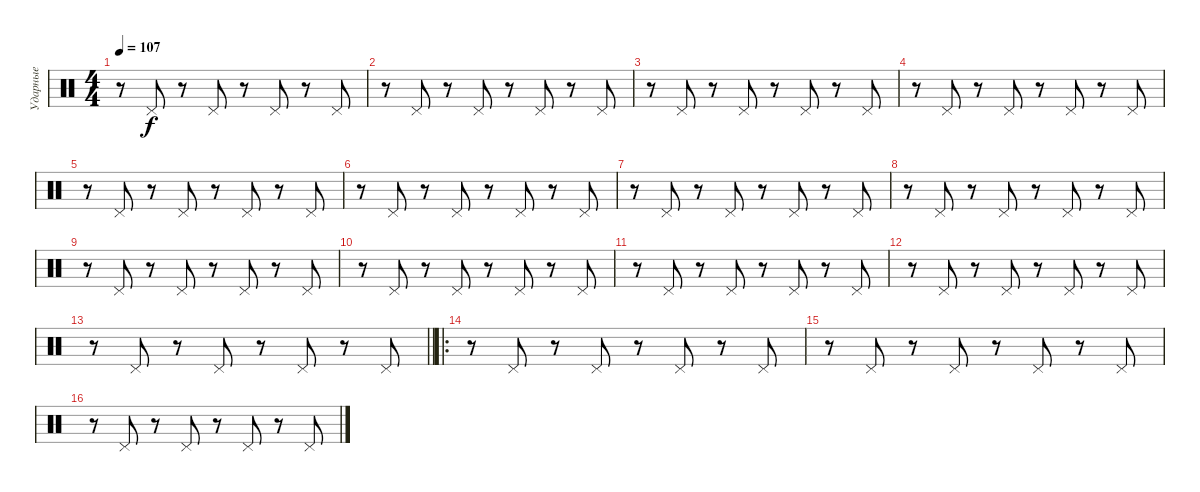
\track ("Ударные" "Ударные") {instrument percussion}
\staff {score}
\articulation defaults
\ts (4 4)
\tempo 107
\clef neutral
\ks c
r.8{dy f} "Pedal Hi-Hat (hit)".8 r.8 "Pedal Hi-Hat (hit)".8 r.8 "Pedal Hi-Hat (hit)".8 r.8 "Pedal Hi-Hat (hit)".8 |
r.8 "Pedal Hi-Hat (hit)".8 r.8 "Pedal Hi-Hat (hit)".8 r.8 "Pedal Hi-Hat (hit)".8 r.8 "Pedal Hi-Hat (hit)".8 |
r.8 "Pedal Hi-Hat (hit)".8 r.8 "Pedal Hi-Hat (hit)".8 r.8 "Pedal Hi-Hat (hit)".8 r.8 "Pedal Hi-Hat (hit)".8 |
r.8 "Pedal Hi-Hat (hit)".8 r.8 "Pedal Hi-Hat (hit)".8 r.8 "Pedal Hi-Hat (hit)".8 r.8 "Pedal Hi-Hat (hit)".8 |
r.8 "Pedal Hi-Hat (hit)".8 r.8 "Pedal Hi-Hat (hit)".8 r.8 "Pedal Hi-Hat (hit)".8 r.8 "Pedal Hi-Hat (hit)".8 |
r.8 "Pedal Hi-Hat (hit)".8 r.8 "Pedal Hi-Hat (hit)".8 r.8 "Pedal Hi-Hat (hit)".8 r.8 "Pedal Hi-Hat (hit)".8 |
r.8 "Pedal Hi-Hat (hit)".8 r.8 "Pedal Hi-Hat (hit)".8 r.8 "Pedal Hi-Hat (hit)".8 r.8 "Pedal Hi-Hat (hit)".8 |
r.8 "Pedal Hi-Hat (hit)".8 r.8 "Pedal Hi-Hat (hit)".8 r.8 "Pedal Hi-Hat (hit)".8 r.8 "Pedal Hi-Hat (hit)".8 |
r.8 "Pedal Hi-Hat (hit)".8 r.8 "Pedal Hi-Hat (hit)".8 r.8 "Pedal Hi-Hat (hit)".8 r.8 "Pedal Hi-Hat (hit)".8 |
r.8 "Pedal Hi-Hat (hit)".8 r.8 "Pedal Hi-Hat (hit)".8 r.8 "Pedal Hi-Hat (hit)".8 r.8 "Pedal Hi-Hat (hit)".8 |
r.8 "Pedal Hi-Hat (hit)".8 r.8 "Pedal Hi-Hat (hit)".8 r.8 "Pedal Hi-Hat (hit)".8 r.8 "Pedal Hi-Hat (hit)".8 |
r.8 "Pedal Hi-Hat (hit)".8 r.8 "Pedal Hi-Hat (hit)".8 r.8 "Pedal Hi-Hat (hit)".8 r.8 "Pedal Hi-Hat (hit)".8 |
\barLineRight lightlight
r.8 "Pedal Hi-Hat (hit)".8 r.8 "Pedal Hi-Hat (hit)".8 r.8 "Pedal Hi-Hat (hit)".8 r.8 "Pedal Hi-Hat (hit)".8 |
\ro
r.8 "Pedal Hi-Hat (hit)".8 r.8 "Pedal Hi-Hat (hit)".8 r.8 "Pedal Hi-Hat (hit)".8 r.8 "Pedal Hi-Hat (hit)".8 |
r.8 "Pedal Hi-Hat (hit)".8 r.8 "Pedal Hi-Hat (hit)".8 r.8 "Pedal Hi-Hat (hit)".8 r.8 "Pedal Hi-Hat (hit)".8 |
r.8 "Pedal Hi-Hat (hit)".8 r.8 "Pedal Hi-Hat (hit)".8 r.8 "Pedal Hi-Hat (hit)".8 r.8 "Pedal Hi-Hat (hit)".8
